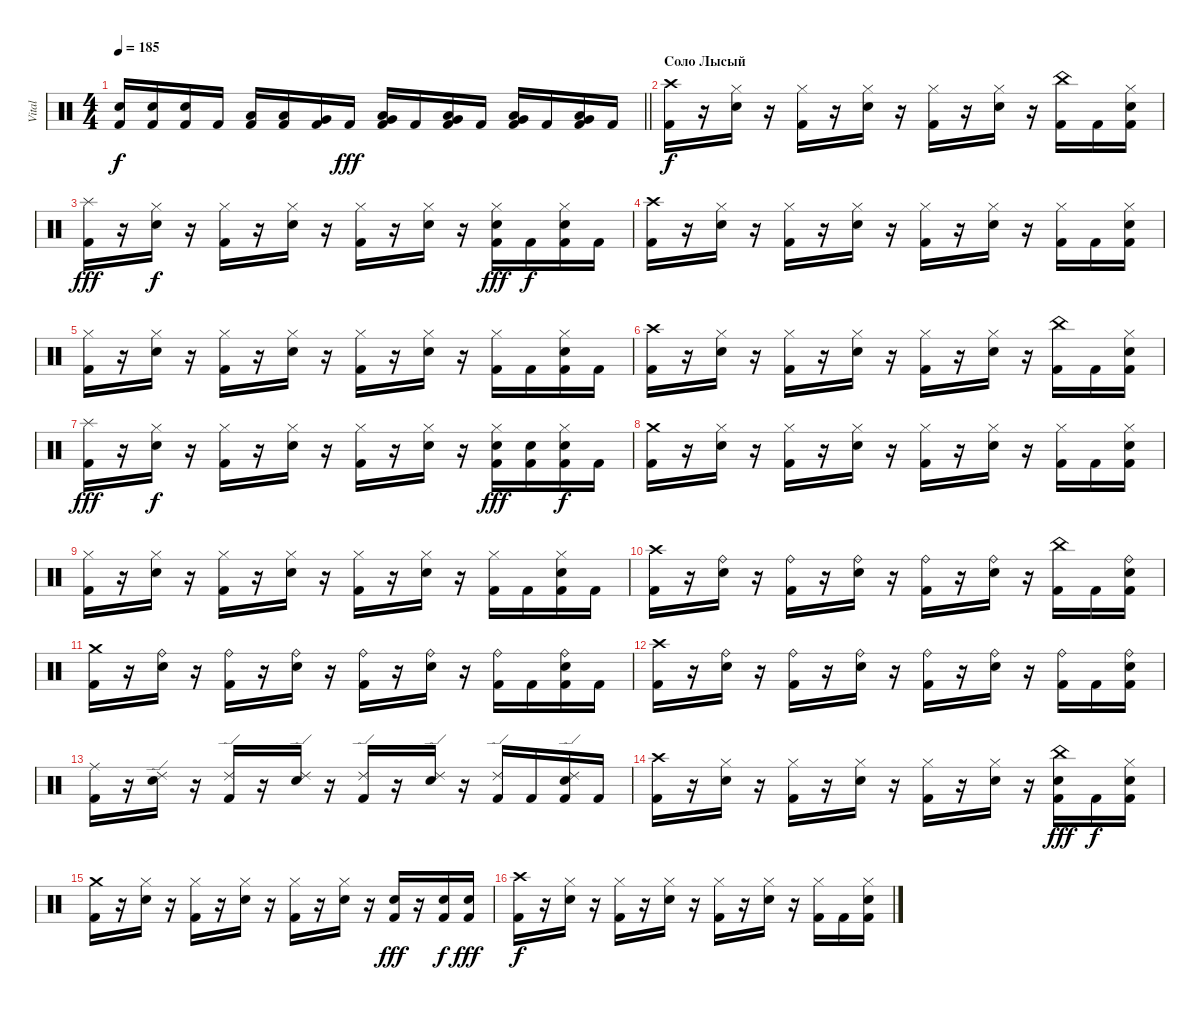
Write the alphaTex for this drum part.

\track ("Vital" "Vital") {instrument percussion}
\staff {score}
\articulation defaults
\ts (4 4)
\tempo 185
\clef neutral
\barLineRight lightlight
\ks c
("Snare (hit) 2" "Kick (hit) 2").16{dy f} ("Snare (hit) 2" "Kick (hit) 2").16 ("Snare (hit) 2" "Kick (hit) 2").16 "Kick (hit) 2".16 ("Low Tom (hit)" "Kick (hit) 2").16 ("Low Tom (hit)" "Kick (hit) 2").16 ("Very Low Tom (hit)" "Kick (hit) 2").16 "Kick (hit) 2".16{dy fff} ("Low Tom (hit)" "Very Low Tom (hit)" "Kick (hit) 2").16 "Kick (hit) 2".16 ("Low Tom (hit)" "Very Low Tom (hit)" "Kick (hit) 2").16 "Kick (hit) 2".16 ("Very Low Tom (hit)" "Low Floor Tom (hit)" "Kick (hit) 2").16 "Kick (hit) 2".16 ("Low Tom (hit)" "Very Low Tom (hit)" "Kick (hit) 2").16 "Kick (hit) 2".16 |
\section ("" "Соло Лысый")
("Crash high (hit)" "Kick (hit) 2").16{dy f} r.16 ("Hi-Hat (closed)" "Snare (hit) 2").16 r.16 ("Hi-Hat (closed)" "Kick (hit) 2").16 r.16 ("Hi-Hat (closed)" "Snare (hit) 2").16 r.16 ("Hi-Hat (closed)" "Kick (hit) 2").16 r.16 ("Hi-Hat (closed)" "Snare (hit) 2").16 r.16 ("China (hit)" "Kick (hit) 2").16 "Kick (hit) 2".16 ("Hi-Hat (closed)" "Snare (hit) 2" "Kick (hit) 2").16 |
("Splash (hit)" "Kick (hit) 2").16{dy fff} r.16 ("Hi-Hat (closed)" "Snare (hit) 2").16{dy f} r.16 ("Hi-Hat (closed)" "Kick (hit) 2").16 r.16 ("Hi-Hat (closed)" "Snare (hit) 2").16 r.16 ("Hi-Hat (closed)" "Kick (hit) 2").16 r.16 ("Hi-Hat (closed)" "Snare (hit) 2").16 r.16 ("Hi-Hat (closed)" "Snare (hit) 2" "Kick (hit) 2").16{dy fff} "Kick (hit) 2".16{dy f} ("Hi-Hat (closed)" "Snare (hit) 2" "Kick (hit) 2").16 "Kick (hit) 2".16 |
("Crash high (hit)" "Kick (hit) 2").16 r.16 ("Hi-Hat (closed)" "Snare (hit) 2").16 r.16 ("Hi-Hat (closed)" "Kick (hit) 2").16 r.16 ("Hi-Hat (closed)" "Snare (hit) 2").16 r.16 ("Hi-Hat (closed)" "Kick (hit) 2").16 r.16 ("Hi-Hat (closed)" "Snare (hit) 2").16 r.16 ("Hi-Hat (closed)" "Kick (hit) 2").16 "Kick (hit) 2".16 ("Hi-Hat (closed)" "Snare (hit) 2" "Kick (hit) 2").16 |
("Hi-Hat (closed)" "Kick (hit) 2").16 r.16 ("Hi-Hat (closed)" "Snare (hit) 2").16 r.16 ("Hi-Hat (closed)" "Kick (hit) 2").16 r.16 ("Hi-Hat (closed)" "Snare (hit) 2").16 r.16 ("Hi-Hat (closed)" "Kick (hit) 2").16 r.16 ("Hi-Hat (closed)" "Snare (hit) 2").16 r.16 ("Hi-Hat (closed)" "Kick (hit) 2").16 "Kick (hit) 2".16 ("Hi-Hat (closed)" "Snare (hit) 2" "Kick (hit) 2").16 "Kick (hit) 2".16 |
("Crash high (hit)" "Kick (hit) 2").16 r.16 ("Hi-Hat (closed)" "Snare (hit) 2").16 r.16 ("Hi-Hat (closed)" "Kick (hit) 2").16 r.16 ("Hi-Hat (closed)" "Snare (hit) 2").16 r.16 ("Hi-Hat (closed)" "Kick (hit) 2").16 r.16 ("Hi-Hat (closed)" "Snare (hit) 2").16 r.16 ("China (hit)" "Kick (hit) 2").16 "Kick (hit) 2".16 ("Hi-Hat (closed)" "Snare (hit) 2" "Kick (hit) 2").16 |
("Splash (hit)" "Kick (hit) 2").16{dy fff} r.16 ("Hi-Hat (closed)" "Snare (hit) 2").16{dy f} r.16 ("Hi-Hat (closed)" "Kick (hit) 2").16 r.16 ("Hi-Hat (closed)" "Snare (hit) 2").16 r.16 ("Hi-Hat (closed)" "Kick (hit) 2").16 r.16 ("Hi-Hat (closed)" "Snare (hit) 2").16 r.16 ("Hi-Hat (closed)" "Snare (hit) 2" "Kick (hit) 2").16{dy fff} ("Snare (hit) 2" "Kick (hit) 2").16 ("Hi-Hat (closed)" "Snare (hit) 2" "Kick (hit) 2").16{dy f} "Kick (hit) 2".16 |
("Crash medium (hit)" "Kick (hit) 2").16 r.16 ("Hi-Hat (closed)" "Snare (hit) 2").16 r.16 ("Hi-Hat (closed)" "Kick (hit) 2").16 r.16 ("Hi-Hat (closed)" "Snare (hit) 2").16 r.16 ("Hi-Hat (closed)" "Kick (hit) 2").16 r.16 ("Hi-Hat (closed)" "Snare (hit) 2").16 r.16 ("Hi-Hat (closed)" "Kick (hit) 2").16 "Kick (hit) 2".16 ("Hi-Hat (closed)" "Snare (hit) 2" "Kick (hit) 2").16 |
("Hi-Hat (closed)" "Kick (hit) 2").16 r.16 ("Hi-Hat (closed)" "Snare (hit) 2").16 r.16 ("Hi-Hat (closed)" "Kick (hit) 2").16 r.16 ("Hi-Hat (closed)" "Snare (hit) 2").16 r.16 ("Hi-Hat (closed)" "Kick (hit) 2").16 r.16 ("Hi-Hat (closed)" "Snare (hit) 2").16 r.16 ("Hi-Hat (closed)" "Kick (hit) 2").16 "Kick (hit) 2".16 ("Hi-Hat (closed)" "Snare (hit) 2" "Kick (hit) 2").16 "Kick (hit) 2".16 |
("Crash high (hit)" "Kick (hit) 2").16 r.16 ("Ride (bell)" "Snare (hit) 2").16 r.16 ("Ride (bell)" "Kick (hit) 2").16 r.16 ("Ride (bell)" "Snare (hit) 2").16 r.16 ("Ride (bell)" "Kick (hit) 2").16 r.16 ("Ride (bell)" "Snare (hit) 2").16 r.16 ("China (hit)" "Kick (hit) 2").16 "Kick (hit) 2".16 ("Ride (bell)" "Snare (hit) 2" "Kick (hit) 2").16 |
("Crash medium (hit)" "Kick (hit) 2").16 r.16 ("Ride (bell)" "Snare (hit) 2").16 r.16 ("Ride (bell)" "Kick (hit) 2").16 r.16 ("Ride (bell)" "Snare (hit) 2").16 r.16 ("Ride (bell)" "Kick (hit) 2").16 r.16 ("Ride (bell)" "Snare (hit) 2").16 r.16 ("Ride (bell)" "Kick (hit) 2").16 "Kick (hit) 2".16 ("Ride (bell)" "Snare (hit) 2" "Kick (hit) 2").16 "Kick (hit) 2".16 |
("Crash high (hit)" "Kick (hit) 2").16 r.16 ("Ride (bell)" "Snare (hit) 2").16 r.16 ("Ride (bell)" "Kick (hit) 2").16 r.16 ("Ride (bell)" "Snare (hit) 2").16 r.16 ("Ride (bell)" "Kick (hit) 2").16 r.16 ("Ride (bell)" "Snare (hit) 2").16 r.16 ("Ride (bell)" "Kick (hit) 2").16 "Kick (hit) 2".16 ("Ride (bell)" "Snare (hit) 2" "Kick (hit) 2").16 |
("Ride (middle)" "Kick (hit) 2").16 r.16 ("Ride (edge) 2" "Snare (hit) 2").16 r.16 ("Ride (edge) 2" "Kick (hit) 2").16 r.16 ("Ride (edge) 2" "Snare (hit) 2").16 r.16 ("Ride (edge) 2" "Kick (hit) 2").16 r.16 ("Ride (edge) 2" "Snare (hit) 2").16 r.16 ("Ride (edge) 2" "Kick (hit) 2").16 "Kick (hit) 2".16 ("Ride (edge) 2" "Snare (hit) 2" "Kick (hit) 2").16 "Kick (hit) 2".16 |
("Crash high (hit)" "Kick (hit) 2").16 r.16 ("Hi-Hat (closed)" "Snare (hit) 2").16 r.16 ("Hi-Hat (closed)" "Kick (hit) 2").16 r.16 ("Hi-Hat (closed)" "Snare (hit) 2").16 r.16 ("Hi-Hat (closed)" "Kick (hit) 2").16 r.16 ("Hi-Hat (closed)" "Snare (hit) 2").16 r.16 ("China (hit)" "Snare (hit) 2" "Kick (hit) 2").16{dy fff} "Kick (hit) 2".16{dy f} ("Hi-Hat (closed)" "Snare (hit) 2" "Kick (hit) 2").16 |
("Crash medium (hit)" "Kick (hit) 2").16 r.16 ("Hi-Hat (closed)" "Snare (hit) 2").16 r.16 ("Hi-Hat (closed)" "Kick (hit) 2").16 r.16 ("Hi-Hat (closed)" "Snare (hit) 2").16 r.16 ("Hi-Hat (closed)" "Kick (hit) 2").16 r.16 ("Hi-Hat (closed)" "Snare (hit) 2").16 r.16 ("Snare (hit) 2" "Kick (hit) 2").16{dy fff} r.16 ("Snare (hit) 2" "Kick (hit) 2").16{dy f} ("Snare (hit) 2" "Kick (hit) 2").16{dy fff} |
("Crash high (hit)" "Kick (hit) 2").16{dy f} r.16 ("Hi-Hat (closed)" "Snare (hit) 2").16 r.16 ("Hi-Hat (closed)" "Kick (hit) 2").16 r.16 ("Hi-Hat (closed)" "Snare (hit) 2").16 r.16 ("Hi-Hat (closed)" "Kick (hit) 2").16 r.16 ("Hi-Hat (closed)" "Snare (hit) 2").16 r.16 ("Hi-Hat (closed)" "Kick (hit) 2").16 "Kick (hit) 2".16 ("Hi-Hat (closed)" "Snare (hit) 2" "Kick (hit) 2").16
